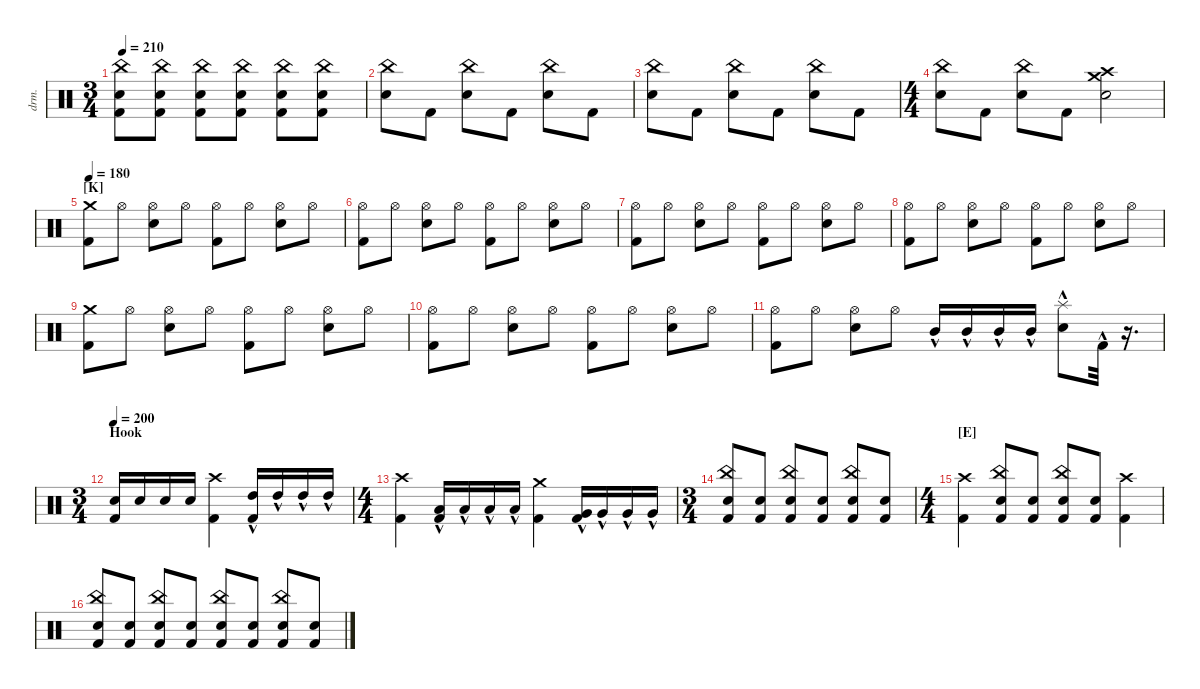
\defaultSystemsLayout 4
\hideDynamics
\bracketExtendMode nobrackets
\otherSystemsTrackNameOrientation horizontal
\track ("Drumkit" "drm.") {instrument percussion}
\staff {score}
\articulation defaults
\ts (3 4)
\tempo 210
\clef neutral
\ks c
("Snare (hit) 2" "Kick (hit) 2" "China (hit)").8{dy mf beam Down} ("Snare (hit) 2" "Kick (hit) 2" "China (hit)").8{beam Down} ("Snare (hit) 2" "Kick (hit) 2" "China (hit)").8{beam Down} ("Snare (hit) 2" "Kick (hit) 2" "China (hit)").8{beam Down} ("Snare (hit) 2" "Kick (hit) 2" "China (hit)").8{beam Down} ("Snare (hit) 2" "Kick (hit) 2" "China (hit)").8{beam Down} |
("Snare (hit) 2" "China (hit)").8{beam Down} "Kick (hit) 2".8{beam Down} ("Snare (hit) 2" "China (hit)").8{beam Down} "Kick (hit) 2".8{beam Down} ("Snare (hit) 2" "China (hit)").8{beam Down} "Kick (hit) 2".8{beam Down} |
("Snare (hit) 2" "China (hit)").8{beam Down} "Kick (hit) 2".8{beam Down} ("Snare (hit) 2" "China (hit)").8{beam Down} "Kick (hit) 2".8{beam Down} ("Snare (hit) 2" "China (hit)").8{beam Down} "Kick (hit) 2".8{beam Down} |
\ts (4 4)
\beaming (8 2 2 2 2)
("Snare (hit) 2" "China (hit)").8{beam Down} "Kick (hit) 2".8{beam Down} ("Snare (hit) 2" "China (hit)").8{beam Down} "Kick (hit) 2".8{beam Down} ("Crash high (hit)" "Crash medium (hit)" "Snare (hit) 2").2{beam Down} |
\section ("K" "")
\tempo 180
("Kick (hit) 2" "Crash medium (hit)").8{beam Down} "Hi-Hat (open)".8{beam Down} ("Snare (hit) 2" "Hi-Hat (open)").8{beam Down} "Hi-Hat (open)".8{beam Down} ("Kick (hit) 2" "Hi-Hat (open)").8{beam Down} "Hi-Hat (open)".8{beam Down} ("Snare (hit) 2" "Hi-Hat (open)").8{beam Down} "Hi-Hat (open)".8{beam Down} |
("Kick (hit) 2" "Hi-Hat (open)").8{beam Down} "Hi-Hat (open)".8{beam Down} ("Snare (hit) 2" "Hi-Hat (open)").8{beam Down} "Hi-Hat (open)".8{beam Down} ("Kick (hit) 2" "Hi-Hat (open)").8{beam Down} "Hi-Hat (open)".8{beam Down} ("Snare (hit) 2" "Hi-Hat (open)").8{beam Down} "Hi-Hat (open)".8{beam Down} |
("Kick (hit) 2" "Hi-Hat (open)").8{beam Down} "Hi-Hat (open)".8{beam Down} ("Snare (hit) 2" "Hi-Hat (open)").8{beam Down} "Hi-Hat (open)".8{beam Down} ("Kick (hit) 2" "Hi-Hat (open)").8{beam Down} "Hi-Hat (open)".8{beam Down} ("Snare (hit) 2" "Hi-Hat (open)").8{beam Down} "Hi-Hat (open)".8{beam Down} |
("Kick (hit) 2" "Hi-Hat (open)").8{beam Down} "Hi-Hat (open)".8{beam Down} ("Snare (hit) 2" "Hi-Hat (open)").8{beam Down} "Hi-Hat (open)".8{beam Down} ("Kick (hit) 2" "Hi-Hat (open)").8{beam Down} "Hi-Hat (open)".8{beam Down} ("Snare (hit) 2" "Hi-Hat (open)").8{beam Down} "Hi-Hat (open)".8{beam Down} |
("Kick (hit) 2" "Crash medium (hit)").8{beam Down} "Hi-Hat (open)".8{beam Down} ("Snare (hit) 2" "Hi-Hat (open)").8{beam Down} "Hi-Hat (open)".8{beam Down} ("Kick (hit) 2" "Hi-Hat (open)").8{beam Down} "Hi-Hat (open)".8{beam Down} ("Snare (hit) 2" "Hi-Hat (open)").8{beam Down} "Hi-Hat (open)".8{beam Down} |
("Kick (hit) 2" "Hi-Hat (open)").8{beam Down} "Hi-Hat (open)".8{beam Down} ("Snare (hit) 2" "Hi-Hat (open)").8{beam Down} "Hi-Hat (open)".8{beam Down} ("Kick (hit) 2" "Hi-Hat (open)").8{beam Down} "Hi-Hat (open)".8{beam Down} ("Snare (hit) 2" "Hi-Hat (open)").8{beam Down} "Hi-Hat (open)".8{beam Down} |
("Kick (hit) 2" "Hi-Hat (open)").8{beam Down} "Hi-Hat (open)".8{beam Down} ("Snare (hit) 2" "Hi-Hat (open)").8{beam Down} "Hi-Hat (open)".8{beam Down} "Mid Tom (hit)"{hac}.16{beam Up} "Mid Tom (hit)"{hac}.16{beam Up} "Mid Tom (hit)"{hac}.16{beam Up} "Mid Tom (hit)"{hac}.16{beam Up} ("Snare (hit) 2"{hac} "Splash (hit)"{hac}).8{beam Down} "Kick (hit) 2"{hac}.32{beam Down} r.16{d beam Down} |
\ts (3 4)
\beaming (8 2 2 2)
\section ("" "Hook")
\tempo 200
("Kick (hit) 2" "Snare (hit) 2").16{beam Up} "Snare (hit) 2".16{beam Up} "Snare (hit) 2".16{beam Up} "Snare (hit) 2".16{beam Up} ("Kick (hit) 2" "Crash high (hit)"{acc #}).4{beam Down} ("Kick (hit) 2" "High Tom (hit)"{hac}).16{beam Up} "High Tom (hit)"{hac}.16{beam Up} "High Tom (hit)"{hac}.16{beam Up} "High Tom (hit)"{hac}.16{beam Up} |
\ts (4 4)
\beaming (8 2 2 2 2)
("Kick (hit) 2" "Crash high (hit)"{acc #}).4{beam Down} ("Kick (hit) 2" "Low Tom (hit)"{hac}).16{beam Up} "Low Tom (hit)"{hac}.16{beam Up} "Low Tom (hit)"{hac}.16{beam Up} "Low Tom (hit)"{hac}.16{beam Up} ("Kick (hit) 2" "Crash medium (hit)").4{beam Down} ("Kick (hit) 2" "Very Low Tom (hit)"{hac}).16{beam Up} "Very Low Tom (hit)"{hac}.16{beam Up} "Very Low Tom (hit)"{hac}.16{beam Up} "Very Low Tom (hit)"{hac}.16{beam Up} |
\ts (3 4)
\beaming (8 2 2 2)
("Snare (hit) 2" "Kick (hit) 2" "China (hit)").8{beam Up} ("Snare (hit) 2" "Kick (hit) 2").8{beam Up} ("Snare (hit) 2" "Kick (hit) 2" "China (hit)").8{beam Up} ("Snare (hit) 2" "Kick (hit) 2").8{beam Up} ("Snare (hit) 2" "Kick (hit) 2" "China (hit)").8{beam Up} ("Snare (hit) 2" "Kick (hit) 2").8{beam Up} |
\ts (4 4)
\beaming (8 2 2 2 2)
\section ("E" "")
("Kick (hit) 2" "Crash high (hit)").4{beam Down} ("Kick (hit) 2" "Snare (hit) 2" "China (hit)").8{beam Up} ("Kick (hit) 2" "Snare (hit) 2").8{beam Up} ("Kick (hit) 2" "Snare (hit) 2" "China (hit)").8{beam Up} ("Kick (hit) 2" "Snare (hit) 2").8{beam Up} ("Kick (hit) 2" "Crash high (hit)").4{beam Down} |
("Kick (hit) 2" "Snare (hit) 2" "China (hit)").8{beam Up} ("Kick (hit) 2" "Snare (hit) 2").8{beam Up} ("Kick (hit) 2" "Snare (hit) 2" "China (hit)").8{beam Up} ("Kick (hit) 2" "Snare (hit) 2").8{beam Up} ("Kick (hit) 2" "Snare (hit) 2" "China (hit)").8{beam Up} ("Kick (hit) 2" "Snare (hit) 2").8{beam Up} ("Kick (hit) 2" "Snare (hit) 2" "China (hit)").8{beam Up} ("Kick (hit) 2" "Snare (hit) 2").8{beam Up}
